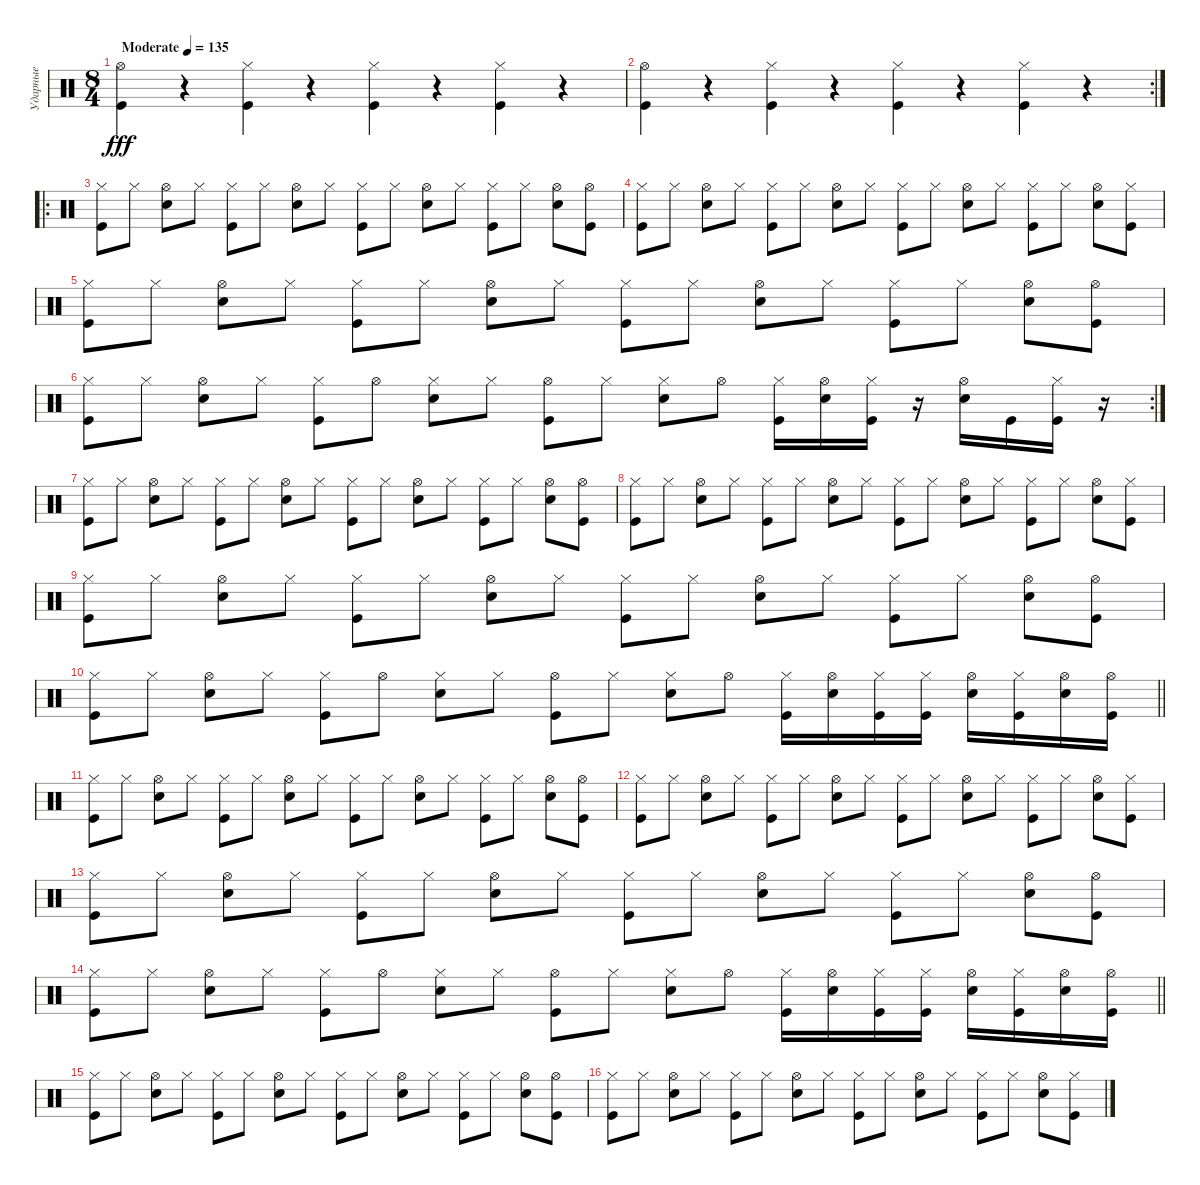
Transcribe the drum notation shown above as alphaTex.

\track ("Ударные" "Ударные") {instrument percussion}
\staff {score}
\articulation defaults
\ts (8 4)
\tempo (135 "Moderate")
\clef neutral
\ks c
("Hi-Hat (open)" "Kick (hit)").4{dy fff} r.4 ("Hi-Hat (closed)" "Kick (hit)").4 r.4 ("Hi-Hat (closed)" "Kick (hit)").4 r.4 ("Hi-Hat (closed)" "Kick (hit)").4 r.4 |
\rc 2
("Hi-Hat (open)" "Kick (hit)").4 r.4 ("Hi-Hat (closed)" "Kick (hit)").4 r.4 ("Hi-Hat (closed)" "Kick (hit)").4 r.4 ("Hi-Hat (closed)" "Kick (hit)").4 r.4 |
\ro
("Hi-Hat (closed)" "Kick (hit)").8 "Hi-Hat (closed)".8 ("Hi-Hat (open)" "Electric Snare (hit)").8 "Hi-Hat (closed)".8 ("Hi-Hat (closed)" "Kick (hit)").8 "Hi-Hat (closed)".8 ("Hi-Hat (open)" "Electric Snare (hit)").8 "Hi-Hat (closed)".8 ("Hi-Hat (closed)" "Kick (hit)").8 "Hi-Hat (closed)".8 ("Hi-Hat (open)" "Electric Snare (hit)").8 "Hi-Hat (closed)".8 ("Hi-Hat (closed)" "Kick (hit)").8 "Hi-Hat (closed)".8 ("Hi-Hat (open)" "Electric Snare (hit)").8 ("Hi-Hat (open)" "Kick (hit)").8 |
("Hi-Hat (closed)" "Kick (hit)").8 "Hi-Hat (closed)".8 ("Hi-Hat (open)" "Electric Snare (hit)").8 "Hi-Hat (closed)".8 ("Hi-Hat (closed)" "Kick (hit)").8 "Hi-Hat (closed)".8 ("Hi-Hat (open)" "Electric Snare (hit)").8 "Hi-Hat (closed)".8 ("Hi-Hat (closed)" "Kick (hit)").8 "Hi-Hat (closed)".8 ("Hi-Hat (open)" "Electric Snare (hit)").8 "Hi-Hat (closed)".8 ("Hi-Hat (closed)" "Kick (hit)").8 "Hi-Hat (closed)".8 ("Hi-Hat (open)" "Electric Snare (hit)").8 ("Hi-Hat (closed)" "Kick (hit)").8 |
("Hi-Hat (closed)" "Kick (hit)").8 "Hi-Hat (closed)".8 ("Hi-Hat (open)" "Electric Snare (hit)").8 "Hi-Hat (closed)".8 ("Hi-Hat (closed)" "Kick (hit)").8 "Hi-Hat (closed)".8 ("Hi-Hat (open)" "Electric Snare (hit)").8 "Hi-Hat (closed)".8 ("Hi-Hat (closed)" "Kick (hit)").8 "Hi-Hat (closed)".8 ("Hi-Hat (open)" "Electric Snare (hit)").8 "Hi-Hat (closed)".8 ("Hi-Hat (closed)" "Kick (hit)").8 "Hi-Hat (closed)".8 ("Hi-Hat (open)" "Electric Snare (hit)").8 ("Hi-Hat (open)" "Kick (hit)").8 |
\rc 2
("Hi-Hat (closed)" "Kick (hit)").8 "Hi-Hat (closed)".8 ("Hi-Hat (open)" "Electric Snare (hit)").8 "Hi-Hat (closed)".8 ("Hi-Hat (closed)" "Kick (hit)").8 "Hi-Hat (open)".8 ("Hi-Hat (closed)" "Electric Snare (hit)").8 "Hi-Hat (closed)".8 ("Hi-Hat (open)" "Kick (hit)").8 "Hi-Hat (closed)".8 ("Hi-Hat (closed)" "Electric Snare (hit)").8 "Hi-Hat (open)".8 ("Hi-Hat (closed)" "Kick (hit)").16 ("Hi-Hat (open)" "Electric Snare (hit)").16 ("Hi-Hat (closed)" "Kick (hit)").16 r.16 ("Hi-Hat (open)" "Electric Snare (hit)").16 "Kick (hit)".16 ("Hi-Hat (closed)" "Kick (hit)").16 r.16 |
("Hi-Hat (closed)" "Kick (hit)").8 "Hi-Hat (closed)".8 ("Hi-Hat (open)" "Electric Snare (hit)").8 "Hi-Hat (closed)".8 ("Hi-Hat (closed)" "Kick (hit)").8 "Hi-Hat (closed)".8 ("Hi-Hat (open)" "Electric Snare (hit)").8 "Hi-Hat (closed)".8 ("Hi-Hat (closed)" "Kick (hit)").8 "Hi-Hat (closed)".8 ("Hi-Hat (open)" "Electric Snare (hit)").8 "Hi-Hat (closed)".8 ("Hi-Hat (closed)" "Kick (hit)").8 "Hi-Hat (closed)".8 ("Hi-Hat (open)" "Electric Snare (hit)").8 ("Hi-Hat (open)" "Kick (hit)").8 |
("Hi-Hat (closed)" "Kick (hit)").8 "Hi-Hat (closed)".8 ("Hi-Hat (open)" "Electric Snare (hit)").8 "Hi-Hat (closed)".8 ("Hi-Hat (closed)" "Kick (hit)").8 "Hi-Hat (closed)".8 ("Hi-Hat (open)" "Electric Snare (hit)").8 "Hi-Hat (closed)".8 ("Hi-Hat (closed)" "Kick (hit)").8 "Hi-Hat (closed)".8 ("Hi-Hat (open)" "Electric Snare (hit)").8 "Hi-Hat (closed)".8 ("Hi-Hat (closed)" "Kick (hit)").8 "Hi-Hat (closed)".8 ("Hi-Hat (open)" "Electric Snare (hit)").8 ("Hi-Hat (closed)" "Kick (hit)").8 |
("Hi-Hat (closed)" "Kick (hit)").8 "Hi-Hat (closed)".8 ("Hi-Hat (open)" "Electric Snare (hit)").8 "Hi-Hat (closed)".8 ("Hi-Hat (closed)" "Kick (hit)").8 "Hi-Hat (closed)".8 ("Hi-Hat (open)" "Electric Snare (hit)").8 "Hi-Hat (closed)".8 ("Hi-Hat (closed)" "Kick (hit)").8 "Hi-Hat (closed)".8 ("Hi-Hat (open)" "Electric Snare (hit)").8 "Hi-Hat (closed)".8 ("Hi-Hat (closed)" "Kick (hit)").8 "Hi-Hat (closed)".8 ("Hi-Hat (open)" "Electric Snare (hit)").8 ("Hi-Hat (open)" "Kick (hit)").8 |
\barLineRight lightlight
("Hi-Hat (closed)" "Kick (hit)").8 "Hi-Hat (closed)".8 ("Hi-Hat (open)" "Electric Snare (hit)").8 "Hi-Hat (closed)".8 ("Hi-Hat (closed)" "Kick (hit)").8 "Hi-Hat (open)".8 ("Hi-Hat (closed)" "Electric Snare (hit)").8 "Hi-Hat (closed)".8 ("Hi-Hat (open)" "Kick (hit)").8 "Hi-Hat (closed)".8 ("Hi-Hat (closed)" "Electric Snare (hit)").8 "Hi-Hat (open)".8 ("Hi-Hat (closed)" "Kick (hit)").16 ("Hi-Hat (open)" "Electric Snare (hit)").16 ("Hi-Hat (closed)" "Kick (hit)").16 ("Hi-Hat (closed)" "Kick (hit)").16 ("Hi-Hat (open)" "Electric Snare (hit)").16 ("Hi-Hat (closed)" "Kick (hit)").16 ("Hi-Hat (open)" "Electric Snare (hit)").16 ("Hi-Hat (open)" "Kick (hit)").16 |
("Hi-Hat (closed)" "Kick (hit)").8 "Hi-Hat (closed)".8 ("Hi-Hat (open)" "Electric Snare (hit)").8 "Hi-Hat (closed)".8 ("Hi-Hat (closed)" "Kick (hit)").8 "Hi-Hat (closed)".8 ("Hi-Hat (open)" "Electric Snare (hit)").8 "Hi-Hat (closed)".8 ("Hi-Hat (closed)" "Kick (hit)").8 "Hi-Hat (closed)".8 ("Hi-Hat (open)" "Electric Snare (hit)").8 "Hi-Hat (closed)".8 ("Hi-Hat (closed)" "Kick (hit)").8 "Hi-Hat (closed)".8 ("Hi-Hat (open)" "Electric Snare (hit)").8 ("Hi-Hat (open)" "Kick (hit)").8 |
("Hi-Hat (closed)" "Kick (hit)").8 "Hi-Hat (closed)".8 ("Hi-Hat (open)" "Electric Snare (hit)").8 "Hi-Hat (closed)".8 ("Hi-Hat (closed)" "Kick (hit)").8 "Hi-Hat (closed)".8 ("Hi-Hat (open)" "Electric Snare (hit)").8 "Hi-Hat (closed)".8 ("Hi-Hat (closed)" "Kick (hit)").8 "Hi-Hat (closed)".8 ("Hi-Hat (open)" "Electric Snare (hit)").8 "Hi-Hat (closed)".8 ("Hi-Hat (closed)" "Kick (hit)").8 "Hi-Hat (closed)".8 ("Hi-Hat (open)" "Electric Snare (hit)").8 ("Hi-Hat (closed)" "Kick (hit)").8 |
("Hi-Hat (closed)" "Kick (hit)").8 "Hi-Hat (closed)".8 ("Hi-Hat (open)" "Electric Snare (hit)").8 "Hi-Hat (closed)".8 ("Hi-Hat (closed)" "Kick (hit)").8 "Hi-Hat (closed)".8 ("Hi-Hat (open)" "Electric Snare (hit)").8 "Hi-Hat (closed)".8 ("Hi-Hat (closed)" "Kick (hit)").8 "Hi-Hat (closed)".8 ("Hi-Hat (open)" "Electric Snare (hit)").8 "Hi-Hat (closed)".8 ("Hi-Hat (closed)" "Kick (hit)").8 "Hi-Hat (closed)".8 ("Hi-Hat (open)" "Electric Snare (hit)").8 ("Hi-Hat (open)" "Kick (hit)").8 |
\barLineRight lightlight
("Hi-Hat (closed)" "Kick (hit)").8 "Hi-Hat (closed)".8 ("Hi-Hat (open)" "Electric Snare (hit)").8 "Hi-Hat (closed)".8 ("Hi-Hat (closed)" "Kick (hit)").8 "Hi-Hat (open)".8 ("Hi-Hat (closed)" "Electric Snare (hit)").8 "Hi-Hat (closed)".8 ("Hi-Hat (open)" "Kick (hit)").8 "Hi-Hat (closed)".8 ("Hi-Hat (closed)" "Electric Snare (hit)").8 "Hi-Hat (open)".8 ("Hi-Hat (closed)" "Kick (hit)").16 ("Hi-Hat (open)" "Electric Snare (hit)").16 ("Hi-Hat (closed)" "Kick (hit)").16 ("Hi-Hat (closed)" "Kick (hit)").16 ("Hi-Hat (open)" "Electric Snare (hit)").16 ("Hi-Hat (closed)" "Kick (hit)").16 ("Hi-Hat (open)" "Electric Snare (hit)").16 ("Hi-Hat (open)" "Kick (hit)").16 |
("Hi-Hat (closed)" "Kick (hit)").8 "Hi-Hat (closed)".8 ("Hi-Hat (open)" "Electric Snare (hit)").8 "Hi-Hat (closed)".8 ("Hi-Hat (closed)" "Kick (hit)").8 "Hi-Hat (closed)".8 ("Hi-Hat (open)" "Electric Snare (hit)").8 "Hi-Hat (closed)".8 ("Hi-Hat (closed)" "Kick (hit)").8 "Hi-Hat (closed)".8 ("Hi-Hat (open)" "Electric Snare (hit)").8 "Hi-Hat (closed)".8 ("Hi-Hat (closed)" "Kick (hit)").8 "Hi-Hat (closed)".8 ("Hi-Hat (open)" "Electric Snare (hit)").8 ("Hi-Hat (open)" "Kick (hit)").8 |
("Hi-Hat (closed)" "Kick (hit)").8 "Hi-Hat (closed)".8 ("Hi-Hat (open)" "Electric Snare (hit)").8 "Hi-Hat (closed)".8 ("Hi-Hat (closed)" "Kick (hit)").8 "Hi-Hat (closed)".8 ("Hi-Hat (open)" "Electric Snare (hit)").8 "Hi-Hat (closed)".8 ("Hi-Hat (closed)" "Kick (hit)").8 "Hi-Hat (closed)".8 ("Hi-Hat (open)" "Electric Snare (hit)").8 "Hi-Hat (closed)".8 ("Hi-Hat (closed)" "Kick (hit)").8 "Hi-Hat (closed)".8 ("Hi-Hat (open)" "Electric Snare (hit)").8 ("Hi-Hat (closed)" "Kick (hit)").8
